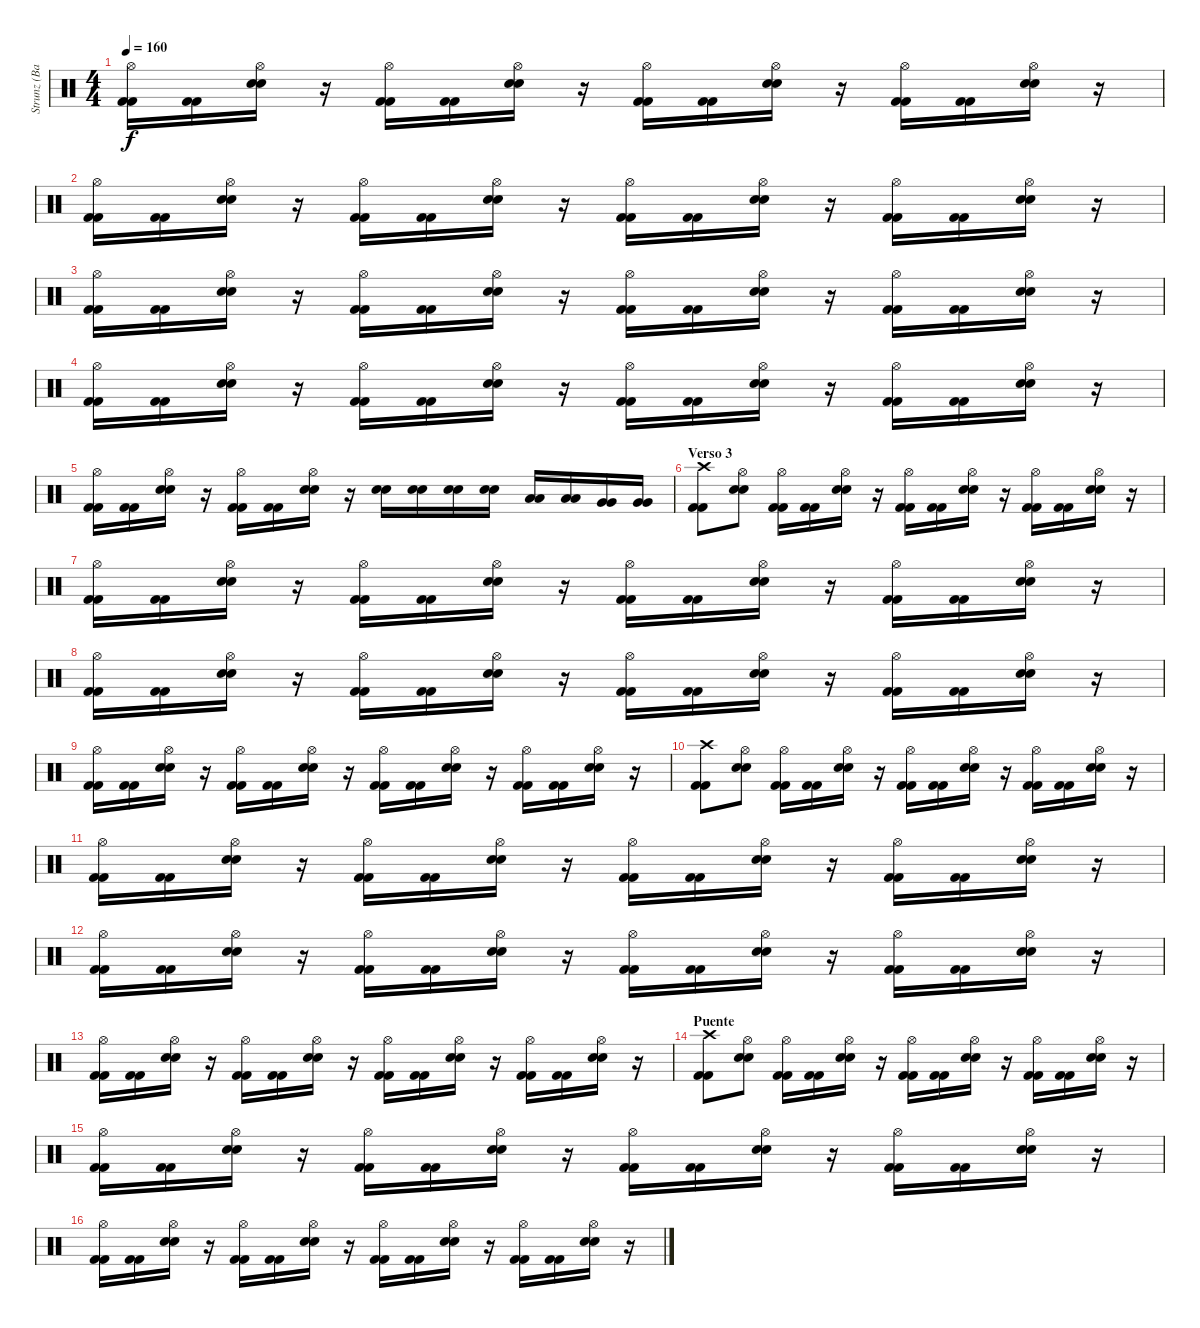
\track ("Strunz (Bateria)" "Strunz (Ba") {instrument percussion}
\staff {score}
\articulation defaults
\ts (4 4)
\tempo 160
\clef neutral
\ks c
("Hi-Hat (open)" "Kick (hit) 2" "Kick (hit) 2").16{dy f} ("Kick (hit) 2" "Kick (hit) 2").16 ("Hi-Hat (open)" "Snare (hit) 2" "Snare (hit) 2").16 r.16 ("Hi-Hat (open)" "Kick (hit) 2" "Kick (hit) 2").16 ("Kick (hit) 2" "Kick (hit) 2").16 ("Hi-Hat (open)" "Snare (hit) 2" "Snare (hit) 2").16 r.16 ("Hi-Hat (open)" "Kick (hit) 2" "Kick (hit) 2").16 ("Kick (hit) 2" "Kick (hit) 2").16 ("Hi-Hat (open)" "Snare (hit) 2" "Snare (hit) 2").16 r.16 ("Hi-Hat (open)" "Kick (hit) 2" "Kick (hit) 2").16 ("Kick (hit) 2" "Kick (hit) 2").16 ("Hi-Hat (open)" "Snare (hit) 2" "Snare (hit) 2").16 r.16 |
("Hi-Hat (open)" "Kick (hit) 2" "Kick (hit) 2").16 ("Kick (hit) 2" "Kick (hit) 2").16 ("Hi-Hat (open)" "Snare (hit) 2" "Snare (hit) 2").16 r.16 ("Hi-Hat (open)" "Kick (hit) 2" "Kick (hit) 2").16 ("Kick (hit) 2" "Kick (hit) 2").16 ("Hi-Hat (open)" "Snare (hit) 2" "Snare (hit) 2").16 r.16 ("Hi-Hat (open)" "Kick (hit) 2" "Kick (hit) 2").16 ("Kick (hit) 2" "Kick (hit) 2").16 ("Hi-Hat (open)" "Snare (hit) 2" "Snare (hit) 2").16 r.16 ("Hi-Hat (open)" "Kick (hit) 2" "Kick (hit) 2").16 ("Kick (hit) 2" "Kick (hit) 2").16 ("Hi-Hat (open)" "Snare (hit) 2" "Snare (hit) 2").16 r.16 |
("Hi-Hat (open)" "Kick (hit) 2" "Kick (hit) 2").16 ("Kick (hit) 2" "Kick (hit) 2").16 ("Hi-Hat (open)" "Snare (hit) 2" "Snare (hit) 2").16 r.16 ("Hi-Hat (open)" "Kick (hit) 2" "Kick (hit) 2").16 ("Kick (hit) 2" "Kick (hit) 2").16 ("Hi-Hat (open)" "Snare (hit) 2" "Snare (hit) 2").16 r.16 ("Hi-Hat (open)" "Kick (hit) 2" "Kick (hit) 2").16 ("Kick (hit) 2" "Kick (hit) 2").16 ("Hi-Hat (open)" "Snare (hit) 2" "Snare (hit) 2").16 r.16 ("Hi-Hat (open)" "Kick (hit) 2" "Kick (hit) 2").16 ("Kick (hit) 2" "Kick (hit) 2").16 ("Hi-Hat (open)" "Snare (hit) 2" "Snare (hit) 2").16 r.16 |
("Hi-Hat (open)" "Kick (hit) 2" "Kick (hit) 2").16 ("Kick (hit) 2" "Kick (hit) 2").16 ("Hi-Hat (open)" "Snare (hit) 2" "Snare (hit) 2").16 r.16 ("Hi-Hat (open)" "Kick (hit) 2" "Kick (hit) 2").16 ("Kick (hit) 2" "Kick (hit) 2").16 ("Hi-Hat (open)" "Snare (hit) 2" "Snare (hit) 2").16 r.16 ("Hi-Hat (open)" "Kick (hit) 2" "Kick (hit) 2").16 ("Kick (hit) 2" "Kick (hit) 2").16 ("Hi-Hat (open)" "Snare (hit) 2" "Snare (hit) 2").16 r.16 ("Hi-Hat (open)" "Kick (hit) 2" "Kick (hit) 2").16 ("Kick (hit) 2" "Kick (hit) 2").16 ("Hi-Hat (open)" "Snare (hit) 2" "Snare (hit) 2").16 r.16 |
("Hi-Hat (open)" "Kick (hit) 2" "Kick (hit) 2").16 ("Kick (hit) 2" "Kick (hit) 2").16 ("Hi-Hat (open)" "Snare (hit) 2" "Snare (hit) 2").16 r.16 ("Hi-Hat (open)" "Kick (hit) 2" "Kick (hit) 2").16 ("Kick (hit) 2" "Kick (hit) 2").16 ("Hi-Hat (open)" "Snare (hit) 2" "Snare (hit) 2").16 r.16 ("Snare (hit) 2" "Snare (hit) 2").16 ("Snare (hit) 2" "Snare (hit) 2").16 ("Snare (hit) 2" "Snare (hit) 2").16 ("Snare (hit) 2" "Snare (hit) 2").16 ("Low Tom (hit)" "Low Tom (hit)").16 ("Low Tom (hit)" "Low Tom (hit)").16 ("Very Low Tom (hit)" "Very Low Tom (hit)").16 ("Very Low Tom (hit)" "Very Low Tom (hit)").16 |
\section ("" "Verso 3")
("Crash high (hit)" "Kick (hit) 2" "Kick (hit) 2").8 ("Hi-Hat (open)" "Snare (hit) 2" "Snare (hit) 2").8 ("Hi-Hat (open)" "Kick (hit) 2" "Kick (hit) 2").16 ("Kick (hit) 2" "Kick (hit) 2").16 ("Hi-Hat (open)" "Snare (hit) 2" "Snare (hit) 2").16 r.16 ("Hi-Hat (open)" "Kick (hit) 2" "Kick (hit) 2").16 ("Kick (hit) 2" "Kick (hit) 2").16 ("Hi-Hat (open)" "Snare (hit) 2" "Snare (hit) 2").16 r.16 ("Hi-Hat (open)" "Kick (hit) 2" "Kick (hit) 2").16 ("Kick (hit) 2" "Kick (hit) 2").16 ("Hi-Hat (open)" "Snare (hit) 2" "Snare (hit) 2").16 r.16 |
("Hi-Hat (open)" "Kick (hit) 2" "Kick (hit) 2").16 ("Kick (hit) 2" "Kick (hit) 2").16 ("Hi-Hat (open)" "Snare (hit) 2" "Snare (hit) 2").16 r.16 ("Hi-Hat (open)" "Kick (hit) 2" "Kick (hit) 2").16 ("Kick (hit) 2" "Kick (hit) 2").16 ("Hi-Hat (open)" "Snare (hit) 2" "Snare (hit) 2").16 r.16 ("Hi-Hat (open)" "Kick (hit) 2" "Kick (hit) 2").16 ("Kick (hit) 2" "Kick (hit) 2").16 ("Hi-Hat (open)" "Snare (hit) 2" "Snare (hit) 2").16 r.16 ("Hi-Hat (open)" "Kick (hit) 2" "Kick (hit) 2").16 ("Kick (hit) 2" "Kick (hit) 2").16 ("Hi-Hat (open)" "Snare (hit) 2" "Snare (hit) 2").16 r.16 |
("Hi-Hat (open)" "Kick (hit) 2" "Kick (hit) 2").16 ("Kick (hit) 2" "Kick (hit) 2").16 ("Hi-Hat (open)" "Snare (hit) 2" "Snare (hit) 2").16 r.16 ("Hi-Hat (open)" "Kick (hit) 2" "Kick (hit) 2").16 ("Kick (hit) 2" "Kick (hit) 2").16 ("Hi-Hat (open)" "Snare (hit) 2" "Snare (hit) 2").16 r.16 ("Hi-Hat (open)" "Kick (hit) 2" "Kick (hit) 2").16 ("Kick (hit) 2" "Kick (hit) 2").16 ("Hi-Hat (open)" "Snare (hit) 2" "Snare (hit) 2").16 r.16 ("Hi-Hat (open)" "Kick (hit) 2" "Kick (hit) 2").16 ("Kick (hit) 2" "Kick (hit) 2").16 ("Hi-Hat (open)" "Snare (hit) 2" "Snare (hit) 2").16 r.16 |
("Hi-Hat (open)" "Kick (hit) 2" "Kick (hit) 2").16 ("Kick (hit) 2" "Kick (hit) 2").16 ("Hi-Hat (open)" "Snare (hit) 2" "Snare (hit) 2").16 r.16 ("Hi-Hat (open)" "Kick (hit) 2" "Kick (hit) 2").16 ("Kick (hit) 2" "Kick (hit) 2").16 ("Hi-Hat (open)" "Snare (hit) 2" "Snare (hit) 2").16 r.16 ("Hi-Hat (open)" "Kick (hit) 2" "Kick (hit) 2").16 ("Kick (hit) 2" "Kick (hit) 2").16 ("Hi-Hat (open)" "Snare (hit) 2" "Snare (hit) 2").16 r.16 ("Hi-Hat (open)" "Kick (hit) 2" "Kick (hit) 2").16 ("Kick (hit) 2" "Kick (hit) 2").16 ("Hi-Hat (open)" "Snare (hit) 2" "Snare (hit) 2").16 r.16 |
("Crash high (hit)" "Kick (hit) 2" "Kick (hit) 2").8 ("Hi-Hat (open)" "Snare (hit) 2" "Snare (hit) 2").8 ("Hi-Hat (open)" "Kick (hit) 2" "Kick (hit) 2").16 ("Kick (hit) 2" "Kick (hit) 2").16 ("Hi-Hat (open)" "Snare (hit) 2" "Snare (hit) 2").16 r.16 ("Hi-Hat (open)" "Kick (hit) 2" "Kick (hit) 2").16 ("Kick (hit) 2" "Kick (hit) 2").16 ("Hi-Hat (open)" "Snare (hit) 2" "Snare (hit) 2").16 r.16 ("Hi-Hat (open)" "Kick (hit) 2" "Kick (hit) 2").16 ("Kick (hit) 2" "Kick (hit) 2").16 ("Hi-Hat (open)" "Snare (hit) 2" "Snare (hit) 2").16 r.16 |
("Hi-Hat (open)" "Kick (hit) 2" "Kick (hit) 2").16 ("Kick (hit) 2" "Kick (hit) 2").16 ("Hi-Hat (open)" "Snare (hit) 2" "Snare (hit) 2").16 r.16 ("Hi-Hat (open)" "Kick (hit) 2" "Kick (hit) 2").16 ("Kick (hit) 2" "Kick (hit) 2").16 ("Hi-Hat (open)" "Snare (hit) 2" "Snare (hit) 2").16 r.16 ("Hi-Hat (open)" "Kick (hit) 2" "Kick (hit) 2").16 ("Kick (hit) 2" "Kick (hit) 2").16 ("Hi-Hat (open)" "Snare (hit) 2" "Snare (hit) 2").16 r.16 ("Hi-Hat (open)" "Kick (hit) 2" "Kick (hit) 2").16 ("Kick (hit) 2" "Kick (hit) 2").16 ("Hi-Hat (open)" "Snare (hit) 2" "Snare (hit) 2").16 r.16 |
("Hi-Hat (open)" "Kick (hit) 2" "Kick (hit) 2").16 ("Kick (hit) 2" "Kick (hit) 2").16 ("Hi-Hat (open)" "Snare (hit) 2" "Snare (hit) 2").16 r.16 ("Hi-Hat (open)" "Kick (hit) 2" "Kick (hit) 2").16 ("Kick (hit) 2" "Kick (hit) 2").16 ("Hi-Hat (open)" "Snare (hit) 2" "Snare (hit) 2").16 r.16 ("Hi-Hat (open)" "Kick (hit) 2" "Kick (hit) 2").16 ("Kick (hit) 2" "Kick (hit) 2").16 ("Hi-Hat (open)" "Snare (hit) 2" "Snare (hit) 2").16 r.16 ("Hi-Hat (open)" "Kick (hit) 2" "Kick (hit) 2").16 ("Kick (hit) 2" "Kick (hit) 2").16 ("Hi-Hat (open)" "Snare (hit) 2" "Snare (hit) 2").16 r.16 |
("Hi-Hat (open)" "Kick (hit) 2" "Kick (hit) 2").16 ("Kick (hit) 2" "Kick (hit) 2").16 ("Hi-Hat (open)" "Snare (hit) 2" "Snare (hit) 2").16 r.16 ("Hi-Hat (open)" "Kick (hit) 2" "Kick (hit) 2").16 ("Kick (hit) 2" "Kick (hit) 2").16 ("Hi-Hat (open)" "Snare (hit) 2" "Snare (hit) 2").16 r.16 ("Hi-Hat (open)" "Kick (hit) 2" "Kick (hit) 2").16 ("Kick (hit) 2" "Kick (hit) 2").16 ("Hi-Hat (open)" "Snare (hit) 2" "Snare (hit) 2").16 r.16 ("Hi-Hat (open)" "Kick (hit) 2" "Kick (hit) 2").16 ("Kick (hit) 2" "Kick (hit) 2").16 ("Hi-Hat (open)" "Snare (hit) 2" "Snare (hit) 2").16 r.16 |
\section ("" "Puente")
("Crash high (hit)" "Kick (hit) 2" "Kick (hit) 2").8 ("Hi-Hat (open)" "Snare (hit) 2" "Snare (hit) 2").8 ("Hi-Hat (open)" "Kick (hit) 2" "Kick (hit) 2").16 ("Kick (hit) 2" "Kick (hit) 2").16 ("Hi-Hat (open)" "Snare (hit) 2" "Snare (hit) 2").16 r.16 ("Hi-Hat (open)" "Kick (hit) 2" "Kick (hit) 2").16 ("Kick (hit) 2" "Kick (hit) 2").16 ("Hi-Hat (open)" "Snare (hit) 2" "Snare (hit) 2").16 r.16 ("Hi-Hat (open)" "Kick (hit) 2" "Kick (hit) 2").16 ("Kick (hit) 2" "Kick (hit) 2").16 ("Hi-Hat (open)" "Snare (hit) 2" "Snare (hit) 2").16 r.16 |
("Hi-Hat (open)" "Kick (hit) 2" "Kick (hit) 2").16 ("Kick (hit) 2" "Kick (hit) 2").16 ("Hi-Hat (open)" "Snare (hit) 2" "Snare (hit) 2").16 r.16 ("Hi-Hat (open)" "Kick (hit) 2" "Kick (hit) 2").16 ("Kick (hit) 2" "Kick (hit) 2").16 ("Hi-Hat (open)" "Snare (hit) 2" "Snare (hit) 2").16 r.16 ("Hi-Hat (open)" "Kick (hit) 2" "Kick (hit) 2").16 ("Kick (hit) 2" "Kick (hit) 2").16 ("Hi-Hat (open)" "Snare (hit) 2" "Snare (hit) 2").16 r.16 ("Hi-Hat (open)" "Kick (hit) 2" "Kick (hit) 2").16 ("Kick (hit) 2" "Kick (hit) 2").16 ("Hi-Hat (open)" "Snare (hit) 2" "Snare (hit) 2").16 r.16 |
("Hi-Hat (open)" "Kick (hit) 2" "Kick (hit) 2").16 ("Kick (hit) 2" "Kick (hit) 2").16 ("Hi-Hat (open)" "Snare (hit) 2" "Snare (hit) 2").16 r.16 ("Hi-Hat (open)" "Kick (hit) 2" "Kick (hit) 2").16 ("Kick (hit) 2" "Kick (hit) 2").16 ("Hi-Hat (open)" "Snare (hit) 2" "Snare (hit) 2").16 r.16 ("Hi-Hat (open)" "Kick (hit) 2" "Kick (hit) 2").16 ("Kick (hit) 2" "Kick (hit) 2").16 ("Hi-Hat (open)" "Snare (hit) 2" "Snare (hit) 2").16 r.16 ("Hi-Hat (open)" "Kick (hit) 2" "Kick (hit) 2").16 ("Kick (hit) 2" "Kick (hit) 2").16 ("Hi-Hat (open)" "Snare (hit) 2" "Snare (hit) 2").16 r.16
